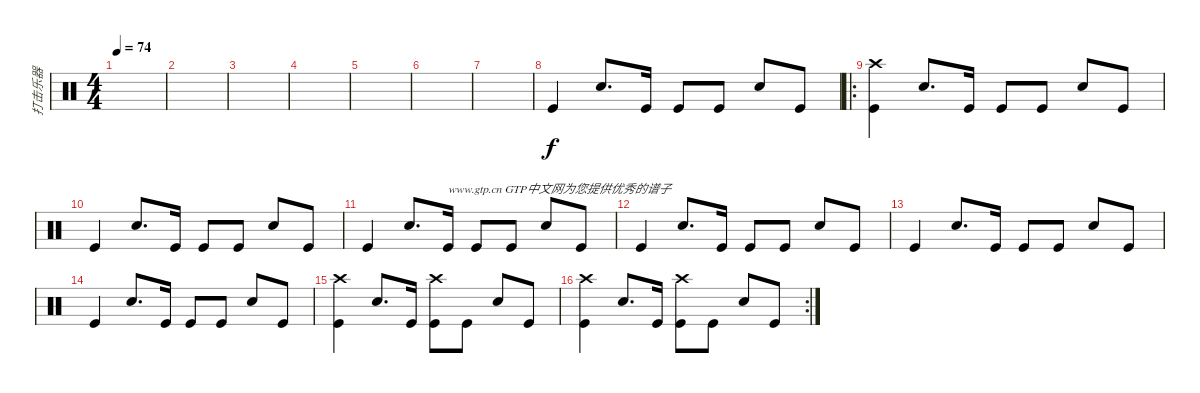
\track ("打击乐器" "打击乐器") {instrument percussion}
\staff {score}
\articulation defaults
\ts (4 4)
\tempo 74
\clef neutral
\ks c
|
|
|
|
|
|
|
"Kick (hit)".4 "Snare (hit) 2".8{d} "Kick (hit)".16 "Kick (hit)".8 "Kick (hit)".8 "Snare (hit) 2".8 "Kick (hit)".8 |
\ro
("Crash high (hit)" "Kick (hit)").4 "Snare (hit) 2".8{d} "Kick (hit)".16 "Kick (hit)".8 "Kick (hit)".8 "Snare (hit) 2".8 "Kick (hit)".8 |
"Kick (hit)".4 "Snare (hit) 2".8{d} "Kick (hit)".16 "Kick (hit)".8 "Kick (hit)".8 "Snare (hit) 2".8 "Kick (hit)".8 |
"Kick (hit)".4 "Snare (hit) 2".8{d} "Kick (hit)".16{txt "www.gtp.cn GTP中文网为您提供优秀的谱子"} "Kick (hit)".8 "Kick (hit)".8 "Snare (hit) 2".8 "Kick (hit)".8 |
"Kick (hit)".4 "Snare (hit) 2".8{d} "Kick (hit)".16 "Kick (hit)".8 "Kick (hit)".8 "Snare (hit) 2".8 "Kick (hit)".8 |
"Kick (hit)".4 "Snare (hit) 2".8{d} "Kick (hit)".16 "Kick (hit)".8 "Kick (hit)".8 "Snare (hit) 2".8 "Kick (hit)".8 |
"Kick (hit)".4 "Snare (hit) 2".8{d} "Kick (hit)".16 "Kick (hit)".8 "Kick (hit)".8 "Snare (hit) 2".8 "Kick (hit)".8 |
("Crash high (hit)" "Kick (hit)").4 "Snare (hit) 2".8{d} "Kick (hit)".16 ("Crash high (hit)" "Kick (hit)").8 "Kick (hit)".8 "Snare (hit) 2".8 "Kick (hit)".8 |
\rc 2
("Crash high (hit)" "Kick (hit)").4 "Snare (hit) 2".8{d} "Kick (hit)".16 ("Crash high (hit)" "Kick (hit)").8 "Kick (hit)".8 "Snare (hit) 2".8 "Kick (hit)".8
